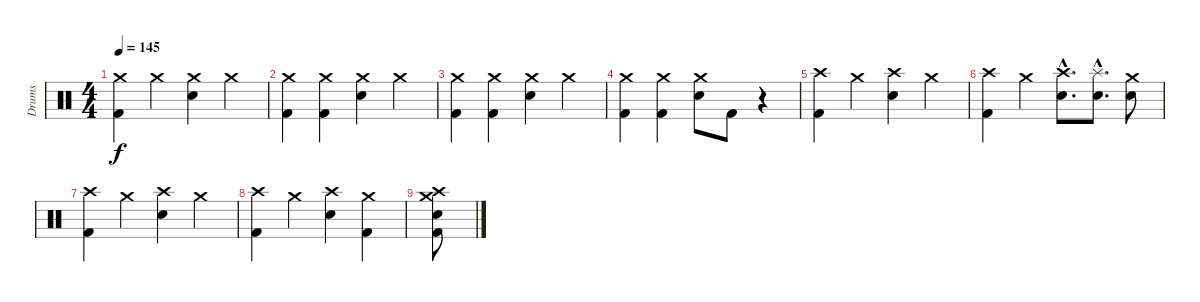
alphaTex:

\track ("Drums" "Drums") {instrument percussion}
\staff {score}
\articulation defaults
\ts (4 4)
\tempo 145
\clef neutral
\ks c
("Crash medium (hit)" "Kick (hit) 2").4{dy f} "Crash medium (hit)".4 ("Crash medium (hit)" "Snare (hit) 2").4 "Crash medium (hit)".4 |
("Crash medium (hit)" "Kick (hit) 2").4 ("Crash medium (hit)" "Kick (hit) 2").4 ("Crash medium (hit)" "Snare (hit) 2").4 "Crash medium (hit)".4 |
("Crash medium (hit)" "Kick (hit) 2").4 ("Crash medium (hit)" "Kick (hit) 2").4 ("Crash medium (hit)" "Snare (hit) 2").4 "Crash medium (hit)".4 |
("Crash medium (hit)" "Kick (hit) 2").4 ("Crash medium (hit)" "Kick (hit) 2").4 ("Crash medium (hit)" "Snare (hit) 2").8 "Kick (hit) 2".8 r.4 |
("Crash high (hit)" "Kick (hit) 2").4 "Crash medium (hit)".4 ("Crash high (hit)" "Snare (hit) 2").4 "Crash medium (hit)".4 |
("Crash high (hit)" "Kick (hit) 2").4 "Crash medium (hit)".4 ("Crash high (hit)"{hac} "Snare (hit) 2"{hac}).8{d} ("Splash (hit)"{hac} "Snare (hit) 2"{hac}).8{d} ("Crash medium (hit)" "Snare (hit) 2").8 |
("Crash high (hit)" "Kick (hit) 2").4 "Crash medium (hit)".4 ("Crash high (hit)" "Snare (hit) 2").4 "Crash medium (hit)".4 |
("Crash high (hit)" "Kick (hit) 2").4 "Crash medium (hit)".4 ("Crash high (hit)" "Snare (hit) 2").4 ("Crash medium (hit)" "Kick (hit) 2").4 |
("Crash high (hit)" "Crash medium (hit)" "Snare (hit) 2" "Kick (hit) 2").8
